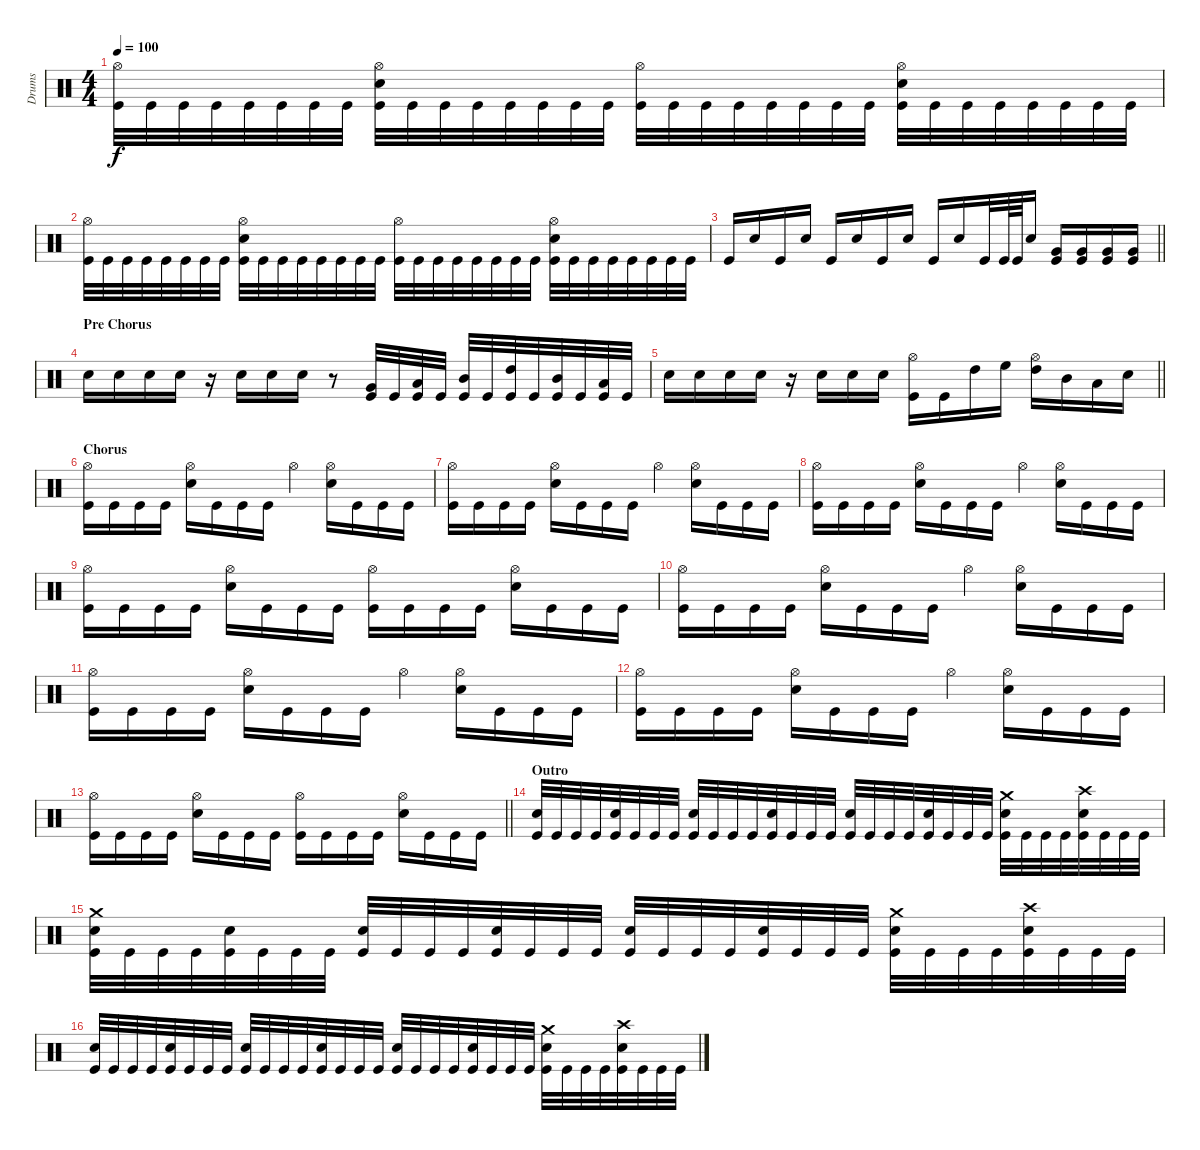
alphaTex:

\track ("Drums" "Drums") {instrument percussion}
\staff {score}
\articulation defaults
\ts (4 4)
\tempo 100
\clef neutral
\ks c
("Hi-Hat (open)" "Kick (hit)").32{dy f} "Kick (hit)".32 "Kick (hit)".32 "Kick (hit)".32 "Kick (hit)".32 "Kick (hit)".32 "Kick (hit)".32 "Kick (hit)".32 ("Hi-Hat (open)" "Electric Snare (hit)" "Kick (hit)").32 "Kick (hit)".32 "Kick (hit)".32 "Kick (hit)".32 "Kick (hit)".32 "Kick (hit)".32 "Kick (hit)".32 "Kick (hit)".32 ("Hi-Hat (open)" "Kick (hit)").32 "Kick (hit)".32 "Kick (hit)".32 "Kick (hit)".32 "Kick (hit)".32 "Kick (hit)".32 "Kick (hit)".32 "Kick (hit)".32 ("Hi-Hat (open)" "Electric Snare (hit)" "Kick (hit)").32 "Kick (hit)".32 "Kick (hit)".32 "Kick (hit)".32 "Kick (hit)".32 "Kick (hit)".32 "Kick (hit)".32 "Kick (hit)".32 |
("Hi-Hat (open)" "Kick (hit)").32 "Kick (hit)".32 "Kick (hit)".32 "Kick (hit)".32 "Kick (hit)".32 "Kick (hit)".32 "Kick (hit)".32 "Kick (hit)".32 ("Hi-Hat (open)" "Electric Snare (hit)" "Kick (hit)").32 "Kick (hit)".32 "Kick (hit)".32 "Kick (hit)".32 "Kick (hit)".32 "Kick (hit)".32 "Kick (hit)".32 "Kick (hit)".32 ("Hi-Hat (open)" "Kick (hit)").32 "Kick (hit)".32 "Kick (hit)".32 "Kick (hit)".32 "Kick (hit)".32 "Kick (hit)".32 "Kick (hit)".32 "Kick (hit)".32 ("Hi-Hat (open)" "Electric Snare (hit)" "Kick (hit)").32 "Kick (hit)".32 "Kick (hit)".32 "Kick (hit)".32 "Kick (hit)".32 "Kick (hit)".32 "Kick (hit)".32 "Kick (hit)".32 |
\barLineRight lightlight "Kick (hit)".16 "Electric Snare (hit)".16 "Kick (hit)".16 "Electric Snare (hit)".16 "Kick (hit)".16 "Electric Snare (hit)".16 "Kick (hit)".16 "Electric Snare (hit)".16 "Kick (hit)".16 "Electric Snare (hit)".16 "Kick (hit)".32 "Kick (hit)".64 "Kick (hit)".64 "Electric Snare (hit)".16
("Very Low Tom (hit)" "Kick (hit)").16 ("Very Low Tom (hit)" "Kick (hit)").16 ("Very Low Tom (hit)" "Kick (hit)").16 ("Very Low Tom (hit)" "Kick (hit)").16 |
\section ("" "Pre Chorus")
"Electric Snare (hit)".16 "Electric Snare (hit)".16 "Electric Snare (hit)".16 "Electric Snare (hit)".16 r.16 "Electric Snare (hit)".16 "Electric Snare (hit)".16 "Electric Snare (hit)".16 r.8 ("Very Low Tom (hit)" "Kick (hit)").32 "Kick (hit)".32 ("Low Tom (hit)" "Kick (hit)").32 "Kick (hit)".32 ("Mid Tom (hit)" "Kick (hit)").32 "Kick (hit)".32 ("High Tom (hit)" "Kick (hit)").32 "Kick (hit)".32 ("Mid Tom (hit)" "Kick (hit)").32 "Kick (hit)".32 ("Low Tom (hit)" "Kick (hit)").32 "Kick (hit)".32 |
\barLineRight lightlight "Electric Snare (hit)".16 "Electric Snare (hit)".16 "Electric Snare (hit)".16 "Electric Snare (hit)".16
r.16 "Electric Snare (hit)".16 "Electric Snare (hit)".16 "Electric Snare (hit)".16 ("Hi-Hat (open)" "Kick (hit)").16 "Kick (hit)".16 "High Tom (hit)".16 "High Floor Tom (hit)".16 ("Hi-Hat (open)" "High Tom (hit)").16 "Mid Tom (hit)".16 "Low Tom (hit)".16 "Electric Snare (hit)".16 |
\section ("" "Chorus")
("Hi-Hat (open)" "Kick (hit)").16 "Kick (hit)".16 "Kick (hit)".16 "Kick (hit)".16 ("Hi-Hat (open)" "Electric Snare (hit)").16 "Kick (hit)".16 "Kick (hit)".16 "Kick (hit)".16 "Hi-Hat (open)".4 ("Hi-Hat (open)" "Electric Snare (hit)").16 "Kick (hit)".16 "Kick (hit)".16 "Kick (hit)".16 |
("Hi-Hat (open)" "Kick (hit)").16 "Kick (hit)".16 "Kick (hit)".16 "Kick (hit)".16 ("Hi-Hat (open)" "Electric Snare (hit)").16 "Kick (hit)".16 "Kick (hit)".16 "Kick (hit)".16 "Hi-Hat (open)".4 ("Hi-Hat (open)" "Electric Snare (hit)").16 "Kick (hit)".16 "Kick (hit)".16 "Kick (hit)".16 |
("Hi-Hat (open)" "Kick (hit)").16 "Kick (hit)".16 "Kick (hit)".16 "Kick (hit)".16 ("Hi-Hat (open)" "Electric Snare (hit)").16 "Kick (hit)".16 "Kick (hit)".16 "Kick (hit)".16 "Hi-Hat (open)".4 ("Hi-Hat (open)" "Electric Snare (hit)").16 "Kick (hit)".16 "Kick (hit)".16 "Kick (hit)".16 |
("Hi-Hat (open)" "Kick (hit)").16 "Kick (hit)".16 "Kick (hit)".16 "Kick (hit)".16 ("Hi-Hat (open)" "Electric Snare (hit)").16 "Kick (hit)".16 "Kick (hit)".16 "Kick (hit)".16 ("Hi-Hat (open)" "Kick (hit)").16 "Kick (hit)".16 "Kick (hit)".16 "Kick (hit)".16 ("Hi-Hat (open)" "Electric Snare (hit)").16 "Kick (hit)".16 "Kick (hit)".16 "Kick (hit)".16 |
("Hi-Hat (open)" "Kick (hit)").16 "Kick (hit)".16 "Kick (hit)".16 "Kick (hit)".16 ("Hi-Hat (open)" "Electric Snare (hit)").16 "Kick (hit)".16 "Kick (hit)".16 "Kick (hit)".16 "Hi-Hat (open)".4 ("Hi-Hat (open)" "Electric Snare (hit)").16 "Kick (hit)".16 "Kick (hit)".16 "Kick (hit)".16 |
("Hi-Hat (open)" "Kick (hit)").16 "Kick (hit)".16 "Kick (hit)".16 "Kick (hit)".16 ("Hi-Hat (open)" "Electric Snare (hit)").16 "Kick (hit)".16 "Kick (hit)".16 "Kick (hit)".16 "Hi-Hat (open)".4 ("Hi-Hat (open)" "Electric Snare (hit)").16 "Kick (hit)".16 "Kick (hit)".16 "Kick (hit)".16 |
("Hi-Hat (open)" "Kick (hit)").16 "Kick (hit)".16 "Kick (hit)".16 "Kick (hit)".16 ("Hi-Hat (open)" "Electric Snare (hit)").16 "Kick (hit)".16 "Kick (hit)".16 "Kick (hit)".16 "Hi-Hat (open)".4 ("Hi-Hat (open)" "Electric Snare (hit)").16 "Kick (hit)".16 "Kick (hit)".16 "Kick (hit)".16 |
\barLineRight lightlight
("Hi-Hat (open)" "Kick (hit)").16 "Kick (hit)".16 "Kick (hit)".16 "Kick (hit)".16 ("Hi-Hat (open)" "Electric Snare (hit)").16 "Kick (hit)".16 "Kick (hit)".16 "Kick (hit)".16 ("Hi-Hat (open)" "Kick (hit)").16 "Kick (hit)".16 "Kick (hit)".16 "Kick (hit)".16 ("Hi-Hat (open)" "Electric Snare (hit)").16 "Kick (hit)".16 "Kick (hit)".16 "Kick (hit)".16 |
\section ("" "Outro")
("Electric Snare (hit)" "Kick (hit)").32 "Kick (hit)".32 "Kick (hit)".32 "Kick (hit)".32 ("Electric Snare (hit)" "Kick (hit)").32 "Kick (hit)".32 "Kick (hit)".32 "Kick (hit)".32 ("Electric Snare (hit)" "Kick (hit)").32 "Kick (hit)".32 "Kick (hit)".32 "Kick (hit)".32 ("Electric Snare (hit)" "Kick (hit)").32 "Kick (hit)".32 "Kick (hit)".32 "Kick (hit)".32 ("Electric Snare (hit)" "Kick (hit)").32 "Kick (hit)".32 "Kick (hit)".32 "Kick (hit)".32 ("Electric Snare (hit)" "Kick (hit)").32 "Kick (hit)".32 "Kick (hit)".32 "Kick (hit)".32 ("Crash medium (hit)" "Electric Snare (hit)" "Kick (hit)").32 "Kick (hit)".32 "Kick (hit)".32 "Kick (hit)".32 ("Crash high (hit)" "Electric Snare (hit)" "Kick (hit)").32 "Kick (hit)".32 "Kick (hit)".32 "Kick (hit)".32 |
("Crash medium (hit)" "Electric Snare (hit)" "Kick (hit)").32 "Kick (hit)".32 "Kick (hit)".32 "Kick (hit)".32 ("Electric Snare (hit)" "Kick (hit)").32 "Kick (hit)".32 "Kick (hit)".32 "Kick (hit)".32 ("Electric Snare (hit)" "Kick (hit)").32 "Kick (hit)".32 "Kick (hit)".32 "Kick (hit)".32 ("Electric Snare (hit)" "Kick (hit)").32 "Kick (hit)".32 "Kick (hit)".32 "Kick (hit)".32 ("Electric Snare (hit)" "Kick (hit)").32 "Kick (hit)".32 "Kick (hit)".32 "Kick (hit)".32 ("Electric Snare (hit)" "Kick (hit)").32 "Kick (hit)".32 "Kick (hit)".32 "Kick (hit)".32 ("Crash medium (hit)" "Electric Snare (hit)" "Kick (hit)").32 "Kick (hit)".32 "Kick (hit)".32 "Kick (hit)".32 ("Crash high (hit)" "Electric Snare (hit)" "Kick (hit)").32 "Kick (hit)".32 "Kick (hit)".32 "Kick (hit)".32 |
("Electric Snare (hit)" "Kick (hit)").32 "Kick (hit)".32 "Kick (hit)".32 "Kick (hit)".32 ("Electric Snare (hit)" "Kick (hit)").32 "Kick (hit)".32 "Kick (hit)".32 "Kick (hit)".32 ("Electric Snare (hit)" "Kick (hit)").32 "Kick (hit)".32 "Kick (hit)".32 "Kick (hit)".32 ("Electric Snare (hit)" "Kick (hit)").32 "Kick (hit)".32 "Kick (hit)".32 "Kick (hit)".32 ("Electric Snare (hit)" "Kick (hit)").32 "Kick (hit)".32 "Kick (hit)".32 "Kick (hit)".32 ("Electric Snare (hit)" "Kick (hit)").32 "Kick (hit)".32 "Kick (hit)".32 "Kick (hit)".32 ("Crash medium (hit)" "Electric Snare (hit)" "Kick (hit)").32 "Kick (hit)".32 "Kick (hit)".32 "Kick (hit)".32 ("Crash high (hit)" "Electric Snare (hit)" "Kick (hit)").32 "Kick (hit)".32 "Kick (hit)".32 "Kick (hit)".32
